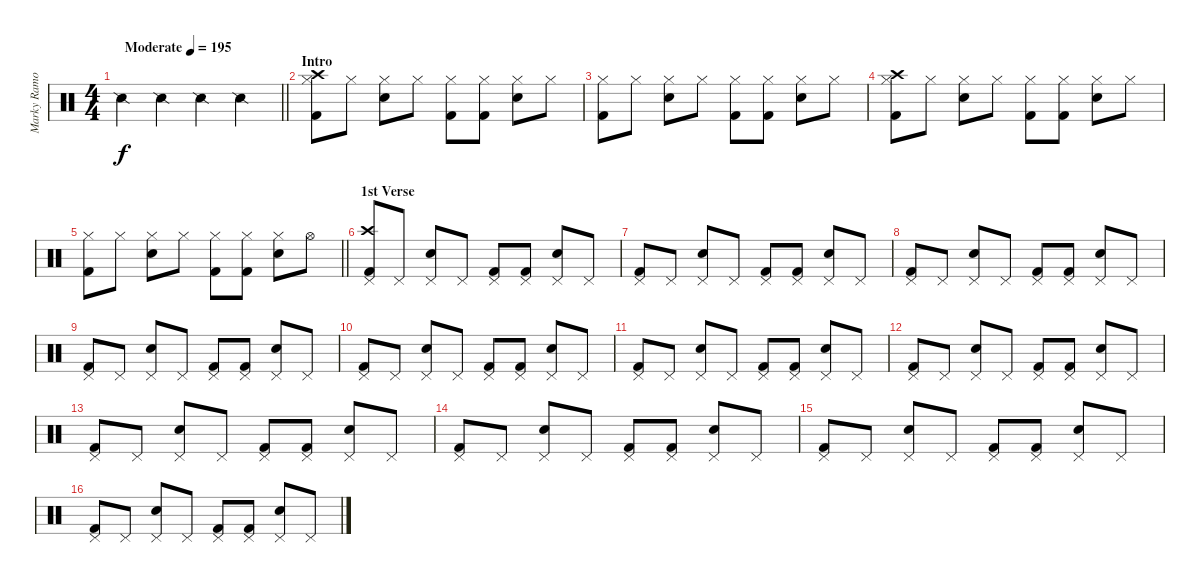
\track ("Marky Ramones" "Marky Ramo") {instrument percussion}
\staff {score}
\articulation defaults
\ts (4 4)
\tempo (195 "Moderate")
\clef neutral
\barLineRight lightlight
\ks c "Snare (side stick) 2".4{dy f} "Snare (side stick) 2".4 "Snare (side stick) 2".4 "Snare (side stick) 2".4
|
\section ("" "Intro")
("Hi-Hat (closed)" "Kick (hit) 2" "Crash high (hit)").8 "Hi-Hat (closed)".8 ("Hi-Hat (closed)" "Electric Snare (hit)").8 "Hi-Hat (closed)".8 ("Hi-Hat (closed)" "Kick (hit) 2").8 ("Hi-Hat (closed)" "Kick (hit) 2").8 ("Hi-Hat (closed)" "Electric Snare (hit)").8 "Hi-Hat (closed)".8 |
("Hi-Hat (closed)" "Kick (hit) 2").8 "Hi-Hat (closed)".8 ("Hi-Hat (closed)" "Electric Snare (hit)").8 "Hi-Hat (closed)".8 ("Hi-Hat (closed)" "Kick (hit) 2").8 ("Hi-Hat (closed)" "Kick (hit) 2").8 ("Hi-Hat (closed)" "Electric Snare (hit)").8 "Hi-Hat (closed)".8 |
("Hi-Hat (closed)" "Kick (hit) 2" "Crash high (hit)").8 "Hi-Hat (closed)".8 ("Hi-Hat (closed)" "Electric Snare (hit)").8 "Hi-Hat (closed)".8 ("Hi-Hat (closed)" "Kick (hit) 2").8 ("Hi-Hat (closed)" "Kick (hit) 2").8 ("Hi-Hat (closed)" "Electric Snare (hit)").8 "Hi-Hat (closed)".8 |
\barLineRight lightlight
("Hi-Hat (closed)" "Kick (hit) 2").8 "Hi-Hat (closed)".8 ("Hi-Hat (closed)" "Electric Snare (hit)").8 "Hi-Hat (closed)".8 ("Hi-Hat (closed)" "Kick (hit) 2").8 ("Hi-Hat (closed)" "Kick (hit) 2").8 ("Hi-Hat (closed)" "Electric Snare (hit)").8 "Hi-Hat (open)".8 |
\section ("" "1st Verse")
("Pedal Hi-Hat (hit)" "Kick (hit) 2" "Crash high (hit)").8 "Pedal Hi-Hat (hit)".8 ("Pedal Hi-Hat (hit)" "Electric Snare (hit)").8 "Pedal Hi-Hat (hit)".8 ("Pedal Hi-Hat (hit)" "Kick (hit) 2").8 ("Pedal Hi-Hat (hit)" "Kick (hit) 2").8 ("Pedal Hi-Hat (hit)" "Electric Snare (hit)").8 "Pedal Hi-Hat (hit)".8 |
("Pedal Hi-Hat (hit)" "Kick (hit) 2").8 "Pedal Hi-Hat (hit)".8 ("Pedal Hi-Hat (hit)" "Electric Snare (hit)").8 "Pedal Hi-Hat (hit)".8 ("Pedal Hi-Hat (hit)" "Kick (hit) 2").8 ("Pedal Hi-Hat (hit)" "Kick (hit) 2").8 ("Pedal Hi-Hat (hit)" "Electric Snare (hit)").8 "Pedal Hi-Hat (hit)".8 |
("Pedal Hi-Hat (hit)" "Kick (hit) 2").8 "Pedal Hi-Hat (hit)".8 ("Pedal Hi-Hat (hit)" "Electric Snare (hit)").8 "Pedal Hi-Hat (hit)".8 ("Pedal Hi-Hat (hit)" "Kick (hit) 2").8 ("Pedal Hi-Hat (hit)" "Kick (hit) 2").8 ("Pedal Hi-Hat (hit)" "Electric Snare (hit)").8 "Pedal Hi-Hat (hit)".8 |
("Pedal Hi-Hat (hit)" "Kick (hit) 2").8 "Pedal Hi-Hat (hit)".8 ("Pedal Hi-Hat (hit)" "Electric Snare (hit)").8 "Pedal Hi-Hat (hit)".8 ("Pedal Hi-Hat (hit)" "Kick (hit) 2").8 ("Pedal Hi-Hat (hit)" "Kick (hit) 2").8 ("Pedal Hi-Hat (hit)" "Electric Snare (hit)").8 "Pedal Hi-Hat (hit)".8 |
("Pedal Hi-Hat (hit)" "Kick (hit) 2").8 "Pedal Hi-Hat (hit)".8 ("Pedal Hi-Hat (hit)" "Electric Snare (hit)").8 "Pedal Hi-Hat (hit)".8 ("Pedal Hi-Hat (hit)" "Kick (hit) 2").8 ("Pedal Hi-Hat (hit)" "Kick (hit) 2").8 ("Pedal Hi-Hat (hit)" "Electric Snare (hit)").8 "Pedal Hi-Hat (hit)".8 |
("Pedal Hi-Hat (hit)" "Kick (hit) 2").8 "Pedal Hi-Hat (hit)".8 ("Pedal Hi-Hat (hit)" "Electric Snare (hit)").8 "Pedal Hi-Hat (hit)".8 ("Pedal Hi-Hat (hit)" "Kick (hit) 2").8 ("Pedal Hi-Hat (hit)" "Kick (hit) 2").8 ("Pedal Hi-Hat (hit)" "Electric Snare (hit)").8 "Pedal Hi-Hat (hit)".8 |
("Pedal Hi-Hat (hit)" "Kick (hit) 2").8 "Pedal Hi-Hat (hit)".8 ("Pedal Hi-Hat (hit)" "Electric Snare (hit)").8 "Pedal Hi-Hat (hit)".8 ("Pedal Hi-Hat (hit)" "Kick (hit) 2").8 ("Pedal Hi-Hat (hit)" "Kick (hit) 2").8 ("Pedal Hi-Hat (hit)" "Electric Snare (hit)").8 "Pedal Hi-Hat (hit)".8 |
("Pedal Hi-Hat (hit)" "Kick (hit) 2").8 "Pedal Hi-Hat (hit)".8 ("Pedal Hi-Hat (hit)" "Electric Snare (hit)").8 "Pedal Hi-Hat (hit)".8 ("Pedal Hi-Hat (hit)" "Kick (hit) 2").8 ("Pedal Hi-Hat (hit)" "Kick (hit) 2").8 ("Pedal Hi-Hat (hit)" "Electric Snare (hit)").8 "Pedal Hi-Hat (hit)".8 |
("Pedal Hi-Hat (hit)" "Kick (hit) 2").8 "Pedal Hi-Hat (hit)".8 ("Pedal Hi-Hat (hit)" "Electric Snare (hit)").8 "Pedal Hi-Hat (hit)".8 ("Pedal Hi-Hat (hit)" "Kick (hit) 2").8 ("Pedal Hi-Hat (hit)" "Kick (hit) 2").8 ("Pedal Hi-Hat (hit)" "Electric Snare (hit)").8 "Pedal Hi-Hat (hit)".8 |
("Pedal Hi-Hat (hit)" "Kick (hit) 2").8 "Pedal Hi-Hat (hit)".8 ("Pedal Hi-Hat (hit)" "Electric Snare (hit)").8 "Pedal Hi-Hat (hit)".8 ("Pedal Hi-Hat (hit)" "Kick (hit) 2").8 ("Pedal Hi-Hat (hit)" "Kick (hit) 2").8 ("Pedal Hi-Hat (hit)" "Electric Snare (hit)").8 "Pedal Hi-Hat (hit)".8 |
("Pedal Hi-Hat (hit)" "Kick (hit) 2").8 "Pedal Hi-Hat (hit)".8 ("Pedal Hi-Hat (hit)" "Electric Snare (hit)").8 "Pedal Hi-Hat (hit)".8 ("Pedal Hi-Hat (hit)" "Kick (hit) 2").8 ("Pedal Hi-Hat (hit)" "Kick (hit) 2").8 ("Pedal Hi-Hat (hit)" "Electric Snare (hit)").8 "Pedal Hi-Hat (hit)".8
